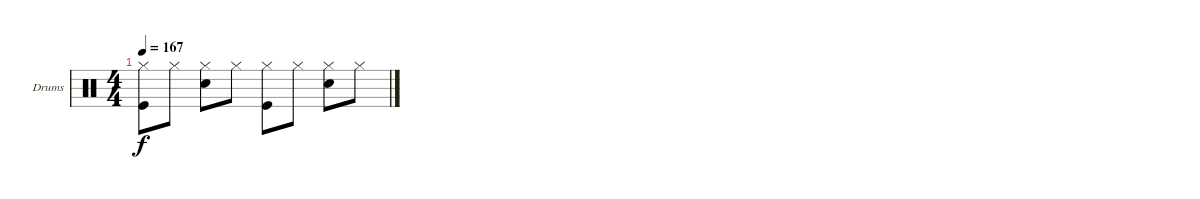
\bracketExtendMode groupsimilarinstruments
\firstSystemTrackNameOrientation horizontal
\otherSystemsTrackNameOrientation horizontal
\track ("Drumkit" "Drums") {instrument percussion}
\staff {score}
\articulation defaults
\ts (4 4)
\tempo 167
\clef neutral
\ks c
("Hi-Hat (closed)" "Kick (hit)").8{dy f} "Hi-Hat (closed)".8 ("Hi-Hat (closed)" "Snare (hit) 2").8 "Hi-Hat (closed)".8 ("Hi-Hat (closed)" "Kick (hit)").8 "Hi-Hat (closed)".8 ("Hi-Hat (closed)" "Snare (hit) 2").8 "Hi-Hat (closed)".8
